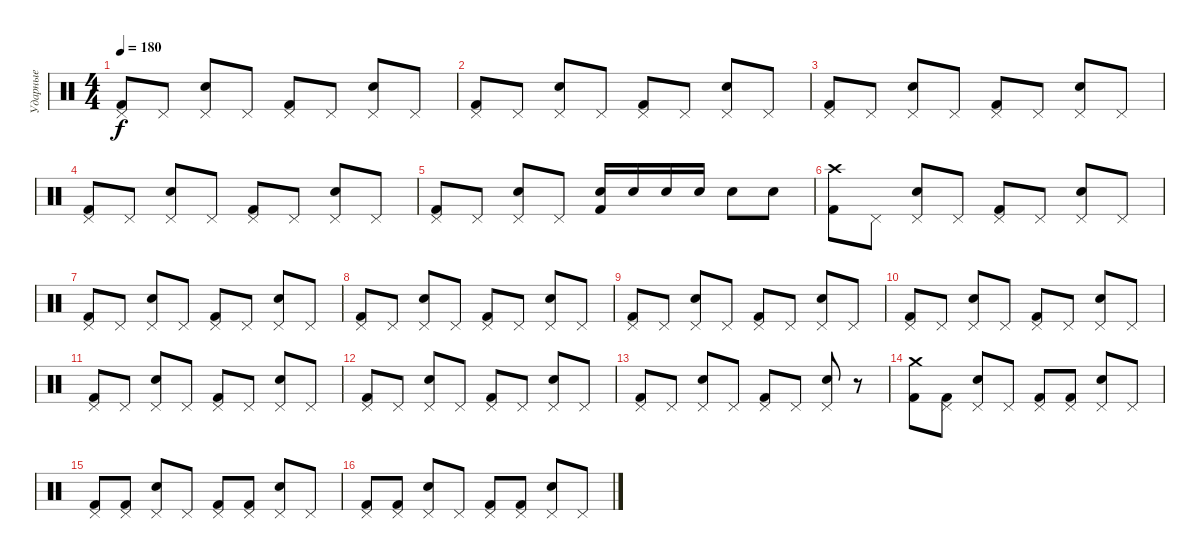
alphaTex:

\track ("Ударные" "Ударные") {instrument percussion}
\staff {score}
\articulation defaults
\ts (4 4)
\tempo 180
\clef neutral
\ks c
("Pedal Hi-Hat (hit)" "Kick (hit) 2").8{dy f} "Pedal Hi-Hat (hit)".8 ("Pedal Hi-Hat (hit)" "Electric Snare (hit)").8 "Pedal Hi-Hat (hit)".8 ("Pedal Hi-Hat (hit)" "Kick (hit) 2").8 "Pedal Hi-Hat (hit)".8 ("Pedal Hi-Hat (hit)" "Electric Snare (hit)").8 "Pedal Hi-Hat (hit)".8 |
("Pedal Hi-Hat (hit)" "Kick (hit) 2").8 "Pedal Hi-Hat (hit)".8 ("Pedal Hi-Hat (hit)" "Electric Snare (hit)").8 "Pedal Hi-Hat (hit)".8 ("Pedal Hi-Hat (hit)" "Kick (hit) 2").8 "Pedal Hi-Hat (hit)".8 ("Pedal Hi-Hat (hit)" "Electric Snare (hit)").8 "Pedal Hi-Hat (hit)".8 |
("Pedal Hi-Hat (hit)" "Kick (hit) 2").8 "Pedal Hi-Hat (hit)".8 ("Pedal Hi-Hat (hit)" "Electric Snare (hit)").8 "Pedal Hi-Hat (hit)".8 ("Pedal Hi-Hat (hit)" "Kick (hit) 2").8 "Pedal Hi-Hat (hit)".8 ("Pedal Hi-Hat (hit)" "Electric Snare (hit)").8 "Pedal Hi-Hat (hit)".8 |
("Pedal Hi-Hat (hit)" "Kick (hit) 2").8 "Pedal Hi-Hat (hit)".8 ("Pedal Hi-Hat (hit)" "Electric Snare (hit)").8 "Pedal Hi-Hat (hit)".8 ("Pedal Hi-Hat (hit)" "Kick (hit) 2").8 "Pedal Hi-Hat (hit)".8 ("Pedal Hi-Hat (hit)" "Electric Snare (hit)").8 "Pedal Hi-Hat (hit)".8 |
("Pedal Hi-Hat (hit)" "Kick (hit) 2").8 "Pedal Hi-Hat (hit)".8 ("Pedal Hi-Hat (hit)" "Electric Snare (hit)").8 "Pedal Hi-Hat (hit)".8 ("Electric Snare (hit)" "Kick (hit) 2").16 "Electric Snare (hit)".16 "Electric Snare (hit)".16 "Electric Snare (hit)".16 "Electric Snare (hit)".8 "Electric Snare (hit)".8 |
("Crash high (hit)" "Kick (hit) 2").8 "Pedal Hi-Hat (hit)".8 ("Pedal Hi-Hat (hit)" "Electric Snare (hit)").8 "Pedal Hi-Hat (hit)".8 ("Pedal Hi-Hat (hit)" "Kick (hit) 2").8 "Pedal Hi-Hat (hit)".8 ("Pedal Hi-Hat (hit)" "Electric Snare (hit)").8 "Pedal Hi-Hat (hit)".8 |
("Pedal Hi-Hat (hit)" "Kick (hit) 2").8 "Pedal Hi-Hat (hit)".8 ("Pedal Hi-Hat (hit)" "Electric Snare (hit)").8 "Pedal Hi-Hat (hit)".8 ("Pedal Hi-Hat (hit)" "Kick (hit) 2").8 "Pedal Hi-Hat (hit)".8 ("Pedal Hi-Hat (hit)" "Electric Snare (hit)").8 "Pedal Hi-Hat (hit)".8 |
("Pedal Hi-Hat (hit)" "Kick (hit) 2").8 "Pedal Hi-Hat (hit)".8 ("Pedal Hi-Hat (hit)" "Electric Snare (hit)").8 "Pedal Hi-Hat (hit)".8 ("Pedal Hi-Hat (hit)" "Kick (hit) 2").8 "Pedal Hi-Hat (hit)".8 ("Pedal Hi-Hat (hit)" "Electric Snare (hit)").8 "Pedal Hi-Hat (hit)".8 |
("Pedal Hi-Hat (hit)" "Kick (hit) 2").8 "Pedal Hi-Hat (hit)".8 ("Pedal Hi-Hat (hit)" "Electric Snare (hit)").8 "Pedal Hi-Hat (hit)".8 ("Pedal Hi-Hat (hit)" "Kick (hit) 2").8 "Pedal Hi-Hat (hit)".8 ("Pedal Hi-Hat (hit)" "Electric Snare (hit)").8 "Pedal Hi-Hat (hit)".8 |
("Pedal Hi-Hat (hit)" "Kick (hit) 2").8 "Pedal Hi-Hat (hit)".8 ("Pedal Hi-Hat (hit)" "Electric Snare (hit)").8 "Pedal Hi-Hat (hit)".8 ("Pedal Hi-Hat (hit)" "Kick (hit) 2").8 "Pedal Hi-Hat (hit)".8 ("Pedal Hi-Hat (hit)" "Electric Snare (hit)").8 "Pedal Hi-Hat (hit)".8 |
("Pedal Hi-Hat (hit)" "Kick (hit) 2").8 "Pedal Hi-Hat (hit)".8 ("Pedal Hi-Hat (hit)" "Electric Snare (hit)").8 "Pedal Hi-Hat (hit)".8 ("Pedal Hi-Hat (hit)" "Kick (hit) 2").8 "Pedal Hi-Hat (hit)".8 ("Pedal Hi-Hat (hit)" "Electric Snare (hit)").8 "Pedal Hi-Hat (hit)".8 |
("Pedal Hi-Hat (hit)" "Kick (hit) 2").8 "Pedal Hi-Hat (hit)".8 ("Pedal Hi-Hat (hit)" "Electric Snare (hit)").8 "Pedal Hi-Hat (hit)".8 ("Pedal Hi-Hat (hit)" "Kick (hit) 2").8 "Pedal Hi-Hat (hit)".8 ("Pedal Hi-Hat (hit)" "Electric Snare (hit)").8 "Pedal Hi-Hat (hit)".8 |
("Pedal Hi-Hat (hit)" "Kick (hit) 2").8 "Pedal Hi-Hat (hit)".8 ("Pedal Hi-Hat (hit)" "Electric Snare (hit)").8 "Pedal Hi-Hat (hit)".8 ("Pedal Hi-Hat (hit)" "Kick (hit) 2").8 "Pedal Hi-Hat (hit)".8 ("Pedal Hi-Hat (hit)" "Electric Snare (hit)").8 r.8 |
("Crash medium (hit)" "Kick (hit) 2").8 ("Pedal Hi-Hat (hit)" "Kick (hit) 2").8 ("Pedal Hi-Hat (hit)" "Electric Snare (hit)").8 "Pedal Hi-Hat (hit)".8 ("Pedal Hi-Hat (hit)" "Kick (hit) 2").8 ("Pedal Hi-Hat (hit)" "Kick (hit) 2").8 ("Pedal Hi-Hat (hit)" "Electric Snare (hit)").8 "Pedal Hi-Hat (hit)".8 |
("Pedal Hi-Hat (hit)" "Kick (hit) 2").8 ("Pedal Hi-Hat (hit)" "Kick (hit) 2").8 ("Pedal Hi-Hat (hit)" "Electric Snare (hit)").8 "Pedal Hi-Hat (hit)".8 ("Pedal Hi-Hat (hit)" "Kick (hit) 2").8 ("Pedal Hi-Hat (hit)" "Kick (hit) 2").8 ("Pedal Hi-Hat (hit)" "Electric Snare (hit)").8 "Pedal Hi-Hat (hit)".8 |
("Pedal Hi-Hat (hit)" "Kick (hit) 2").8 ("Pedal Hi-Hat (hit)" "Kick (hit) 2").8 ("Pedal Hi-Hat (hit)" "Electric Snare (hit)").8 "Pedal Hi-Hat (hit)".8 ("Pedal Hi-Hat (hit)" "Kick (hit) 2").8 ("Pedal Hi-Hat (hit)" "Kick (hit) 2").8 ("Pedal Hi-Hat (hit)" "Electric Snare (hit)").8 "Pedal Hi-Hat (hit)".8
